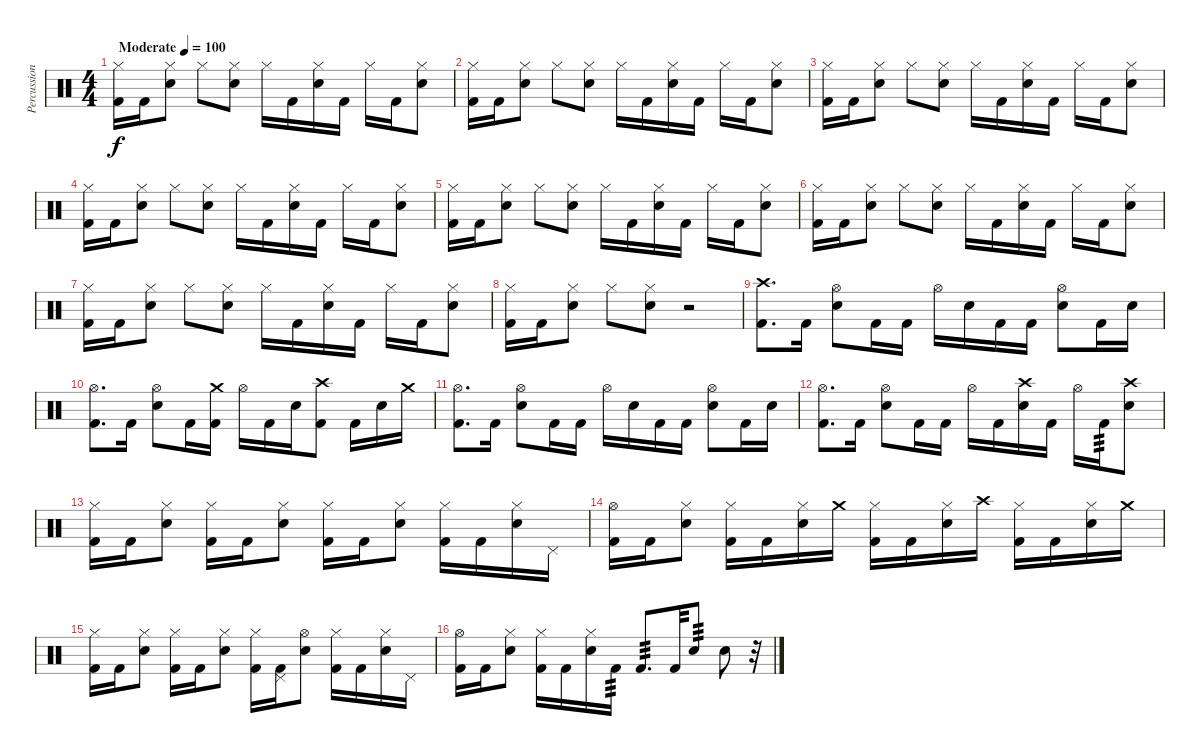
\track ("Percussion" "Percussion") {instrument percussion}
\staff {score}
\articulation defaults
\ts (4 4)
\tempo (100 "Moderate")
\clef neutral
\ks c
("Hi-Hat (closed)" "Kick (hit) 2").16{dy f} "Kick (hit) 2".16 ("Hi-Hat (closed)" "Snare (hit) 2").8 "Hi-Hat (closed)".8 ("Hi-Hat (closed)" "Snare (hit) 2").8 "Hi-Hat (closed)".16 "Kick (hit) 2".16 ("Hi-Hat (closed)" "Snare (hit) 2").16 "Kick (hit) 2".16 "Hi-Hat (closed)".16 "Kick (hit) 2".16 ("Hi-Hat (closed)" "Snare (hit) 2").8 |
("Hi-Hat (closed)" "Kick (hit) 2").16 "Kick (hit) 2".16 ("Hi-Hat (closed)" "Snare (hit) 2").8 "Hi-Hat (closed)".8 ("Hi-Hat (closed)" "Snare (hit) 2").8 "Hi-Hat (closed)".16 "Kick (hit) 2".16 ("Hi-Hat (closed)" "Snare (hit) 2").16 "Kick (hit) 2".16 "Hi-Hat (closed)".16 "Kick (hit) 2".16 ("Hi-Hat (closed)" "Snare (hit) 2").8 |
("Hi-Hat (closed)" "Kick (hit) 2").16 "Kick (hit) 2".16 ("Hi-Hat (closed)" "Snare (hit) 2").8 "Hi-Hat (closed)".8 ("Hi-Hat (closed)" "Snare (hit) 2").8 "Hi-Hat (closed)".16 "Kick (hit) 2".16 ("Hi-Hat (closed)" "Snare (hit) 2").16 "Kick (hit) 2".16 "Hi-Hat (closed)".16 "Kick (hit) 2".16 ("Hi-Hat (closed)" "Snare (hit) 2").8 |
("Hi-Hat (closed)" "Kick (hit) 2").16 "Kick (hit) 2".16 ("Hi-Hat (closed)" "Snare (hit) 2").8 "Hi-Hat (closed)".8 ("Hi-Hat (closed)" "Snare (hit) 2").8 "Hi-Hat (closed)".16 "Kick (hit) 2".16 ("Hi-Hat (closed)" "Snare (hit) 2").16 "Kick (hit) 2".16 "Hi-Hat (closed)".16 "Kick (hit) 2".16 ("Hi-Hat (closed)" "Snare (hit) 2").8 |
("Hi-Hat (closed)" "Kick (hit) 2").16 "Kick (hit) 2".16 ("Hi-Hat (closed)" "Snare (hit) 2").8 "Hi-Hat (closed)".8 ("Hi-Hat (closed)" "Snare (hit) 2").8 "Hi-Hat (closed)".16 "Kick (hit) 2".16 ("Hi-Hat (closed)" "Snare (hit) 2").16 "Kick (hit) 2".16 "Hi-Hat (closed)".16 "Kick (hit) 2".16 ("Hi-Hat (closed)" "Snare (hit) 2").8 |
("Hi-Hat (closed)" "Kick (hit) 2").16 "Kick (hit) 2".16 ("Hi-Hat (closed)" "Snare (hit) 2").8 "Hi-Hat (closed)".8 ("Hi-Hat (closed)" "Snare (hit) 2").8 "Hi-Hat (closed)".16 "Kick (hit) 2".16 ("Hi-Hat (closed)" "Snare (hit) 2").16 "Kick (hit) 2".16 "Hi-Hat (closed)".16 "Kick (hit) 2".16 ("Hi-Hat (closed)" "Snare (hit) 2").8 |
("Hi-Hat (closed)" "Kick (hit) 2").16 "Kick (hit) 2".16 ("Hi-Hat (closed)" "Snare (hit) 2").8 "Hi-Hat (closed)".8 ("Hi-Hat (closed)" "Snare (hit) 2").8 "Hi-Hat (closed)".16 "Kick (hit) 2".16 ("Hi-Hat (closed)" "Snare (hit) 2").16 "Kick (hit) 2".16 "Hi-Hat (closed)".16 "Kick (hit) 2".16 ("Hi-Hat (closed)" "Snare (hit) 2").8 |
("Hi-Hat (closed)" "Kick (hit) 2").16 "Kick (hit) 2".16 ("Hi-Hat (closed)" "Snare (hit) 2").8 "Hi-Hat (closed)".8 ("Hi-Hat (closed)" "Snare (hit) 2").8 r.2 |
("Crash high (hit)" "Kick (hit) 2").8{d} "Kick (hit) 2".16 ("Hi-Hat (open)" "Electric Snare (hit)").8 "Kick (hit) 2".16 "Kick (hit) 2".16 "Hi-Hat (open)".16 "Electric Snare (hit)".16 "Kick (hit) 2".16 "Kick (hit) 2".16 ("Hi-Hat (open)" "Electric Snare (hit)").8 "Kick (hit) 2".16 "Electric Snare (hit)".16 |
("Hi-Hat (open)" "Kick (hit) 2").8{d} "Kick (hit) 2".16 ("Hi-Hat (open)" "Electric Snare (hit)").8 "Kick (hit) 2".16 ("Crash medium (hit)" "Kick (hit) 2").16 "Hi-Hat (open)".16 "Kick (hit) 2".16 "Electric Snare (hit)".16 ("Crash high (hit)" "Kick (hit) 2").8 "Kick (hit) 2".16 "Electric Snare (hit)".16 "Crash medium (hit)".16 |
("Hi-Hat (open)" "Kick (hit) 2").8{d} "Kick (hit) 2".16 ("Hi-Hat (open)" "Electric Snare (hit)").8 "Kick (hit) 2".16 "Kick (hit) 2".16 "Hi-Hat (open)".16 "Electric Snare (hit)".16 "Kick (hit) 2".16 "Kick (hit) 2".16 ("Hi-Hat (open)" "Electric Snare (hit)").8 "Kick (hit) 2".16 "Electric Snare (hit)".16 |
("Hi-Hat (open)" "Kick (hit) 2").8{d} "Kick (hit) 2".16 ("Hi-Hat (open)" "Electric Snare (hit)").8 "Kick (hit) 2".16 "Kick (hit) 2".16 "Hi-Hat (open)".16 "Kick (hit) 2".16 ("Crash high (hit)" "Electric Snare (hit)").16 "Kick (hit) 2".16 "Hi-Hat (open)".16 "Kick (hit) 2".16{tp 3} ("Crash high (hit)" "Electric Snare (hit)").8 |
("Hi-Hat (closed)" "Kick (hit) 2").16 "Kick (hit) 2".16 ("Hi-Hat (closed)" "Electric Snare (hit)").8 ("Hi-Hat (closed)" "Kick (hit) 2").16 "Kick (hit) 2".16 ("Hi-Hat (closed)" "Electric Snare (hit)").8 ("Hi-Hat (closed)" "Kick (hit) 2").16 "Kick (hit) 2".16 ("Hi-Hat (closed)" "Electric Snare (hit)").8 ("Hi-Hat (closed)" "Kick (hit) 2").16 "Kick (hit) 2".16 ("Hi-Hat (closed)" "Electric Snare (hit)").16 "Pedal Hi-Hat (hit)".16 |
("Hi-Hat (open)" "Kick (hit) 2").16 "Kick (hit) 2".16 ("Hi-Hat (closed)" "Electric Snare (hit)").8 ("Hi-Hat (closed)" "Kick (hit) 2").16 "Kick (hit) 2".16 ("Hi-Hat (closed)" "Electric Snare (hit)").16 "Crash medium (hit)".16 ("Hi-Hat (closed)" "Kick (hit) 2").16 "Kick (hit) 2".16 ("Hi-Hat (closed)" "Electric Snare (hit)").16 "Crash high (hit)".16 ("Hi-Hat (closed)" "Kick (hit) 2").16 "Kick (hit) 2".16 ("Hi-Hat (closed)" "Electric Snare (hit)").16 "Crash medium (hit)".16 |
("Hi-Hat (closed)" "Kick (hit) 2").16 "Kick (hit) 2".16 ("Hi-Hat (closed)" "Electric Snare (hit)").8 ("Hi-Hat (closed)" "Kick (hit) 2").16 "Kick (hit) 2".16 ("Hi-Hat (closed)" "Electric Snare (hit)").8 ("Hi-Hat (closed)" "Kick (hit) 2").16 ("Pedal Hi-Hat (hit)" "Kick (hit) 2").16 ("Hi-Hat (open)" "Electric Snare (hit)").8 ("Hi-Hat (closed)" "Kick (hit) 2").16 "Kick (hit) 2".16 ("Hi-Hat (closed)" "Electric Snare (hit)").16 "Pedal Hi-Hat (hit)".16 |
("Hi-Hat (open)" "Kick (hit) 2").16 "Kick (hit) 2".16 ("Hi-Hat (closed)" "Electric Snare (hit)").8 ("Hi-Hat (closed)" "Kick (hit) 2").16 "Kick (hit) 2".16 ("Hi-Hat (closed)" "Electric Snare (hit)").16 "Kick (hit) 2".16{tp 3} "Kick (hit) 2".8{d tp 3} "Kick (hit) 2".32 "Electric Snare (hit)".8{tp 3} "Electric Snare (hit)".8 r.32
